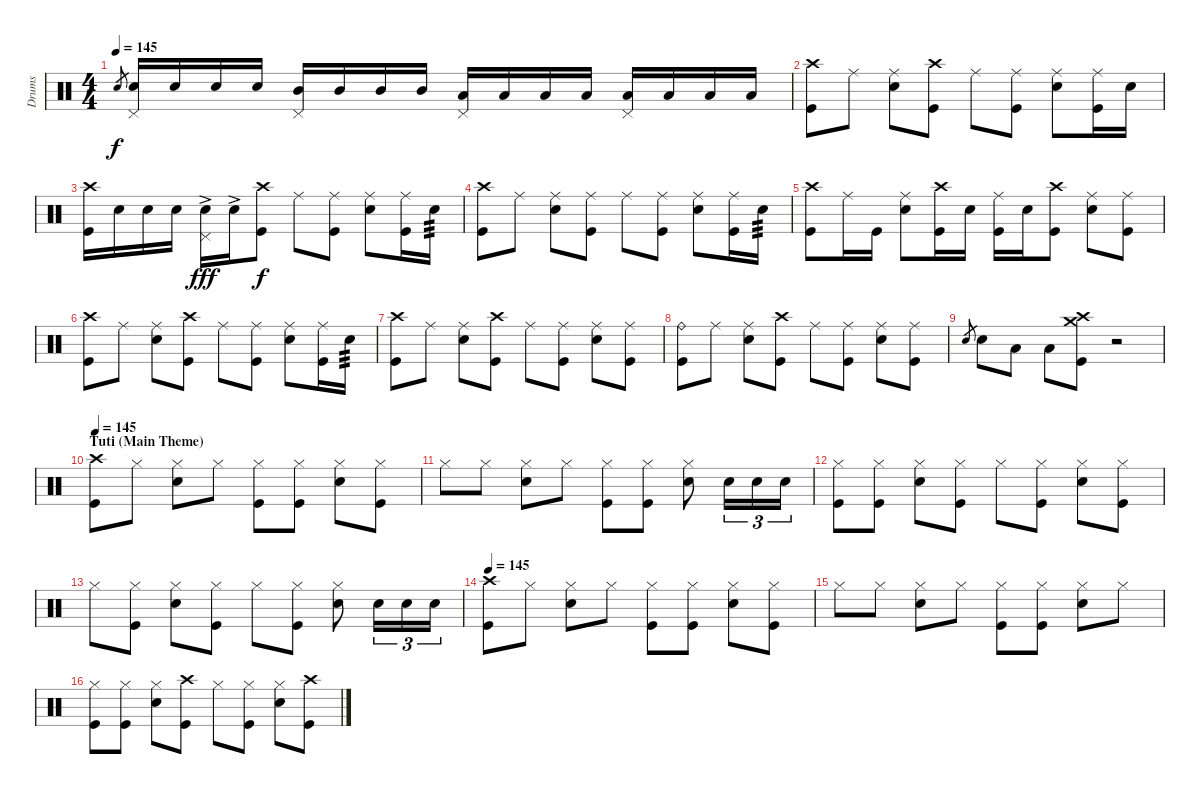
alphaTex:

\track ("Drums" "Drums") {instrument percussion}
\staff {score}
\articulation defaults
\ts (4 4)
\tempo 145
\clef neutral
\ks c "Electric Snare (hit)".8{gr dy f}
("Electric Snare (hit)" "Pedal Hi-Hat (hit)").16 "Electric Snare (hit)".16 "Electric Snare (hit)".16 "Electric Snare (hit)".16 ("Mid Tom (hit)" "Pedal Hi-Hat (hit)").16 "Mid Tom (hit)".16 "Mid Tom (hit)".16 "Mid Tom (hit)".16 ("Low Tom (hit)" "Pedal Hi-Hat (hit)").16 "Low Tom (hit)".16 "Low Tom (hit)".16 "Low Tom (hit)".16 ("Low Floor Tom (hit)" "Pedal Hi-Hat (hit)").16 "Low Floor Tom (hit)".16 "Low Floor Tom (hit)".16 "Low Floor Tom (hit)".16 |
("Crash high (hit)" "Kick (hit)").8 "Ride (middle)".8 ("Ride (middle)" "Electric Snare (hit)").8 ("Crash high (hit)" "Kick (hit)").8 "Ride (middle)".8 ("Ride (middle)" "Kick (hit)").8 ("Ride (middle)" "Electric Snare (hit)").8 ("Ride (middle)" "Kick (hit)").16 "Electric Snare (hit)".16 |
("Crash high (hit)" "Kick (hit)").16 "Electric Snare (hit)".16 "Electric Snare (hit)".16 "Electric Snare (hit)".16 ("Electric Snare (hit)"{ac} "Pedal Hi-Hat (hit)").16{dy fff} "Electric Snare (hit)"{ac}.16 ("Crash high (hit)" "Kick (hit)").8{dy f} "Ride (middle)".8 ("Ride (middle)" "Kick (hit)").8 ("Ride (middle)" "Electric Snare (hit)").8 ("Ride (middle)" "Kick (hit)").16 "Electric Snare (hit)".16{tp 3} |
("Crash high (hit)" "Kick (hit)").8 "Ride (middle)".8 ("Ride (middle)" "Electric Snare (hit)").8 ("Ride (middle)" "Kick (hit)").8 "Ride (middle)".8 ("Ride (middle)" "Kick (hit)").8 ("Ride (middle)" "Electric Snare (hit)").8 ("Ride (middle)" "Kick (hit)").16 "Electric Snare (hit)".16{tp 3} |
("Crash high (hit)" "Kick (hit)").8 "Ride (middle)".16 "Kick (hit)".16 ("Ride (middle)" "Electric Snare (hit)").8 ("Crash high (hit)" "Kick (hit)").16 "Electric Snare (hit)".16 ("Ride (middle)" "Kick (hit)").16 "Electric Snare (hit)".16 ("Crash high (hit)" "Kick (hit)").8 ("Ride (middle)" "Electric Snare (hit)").8 ("Ride (middle)" "Kick (hit)").8 |
("Crash high (hit)" "Kick (hit)").8 "Ride (middle)".8 ("Ride (middle)" "Electric Snare (hit)").8 ("Crash high (hit)" "Kick (hit)").8 "Ride (middle)".8 ("Ride (middle)" "Kick (hit)").8 ("Ride (middle)" "Electric Snare (hit)").8 ("Ride (middle)" "Kick (hit)").16 "Electric Snare (hit)".16{tp 3} |
("Crash high (hit)" "Kick (hit)").8 "Ride (middle)".8 ("Ride (middle)" "Electric Snare (hit)").8 ("Crash high (hit)" "Kick (hit)").8 "Ride (middle)".8 ("Ride (middle)" "Kick (hit)").8 ("Ride (middle)" "Electric Snare (hit)").8 ("Ride (middle)" "Kick (hit)").8 |
("Ride (bell)" "Kick (hit)").8 "Ride (middle)".8 ("Ride (middle)" "Electric Snare (hit)").8 ("Crash high (hit)" "Kick (hit)").8 "Ride (middle)".8 ("Ride (middle)" "Kick (hit)").8 ("Ride (middle)" "Electric Snare (hit)").8 ("Ride (middle)" "Kick (hit)").8 |
"Electric Snare (hit)".8{gr} "Electric Snare (hit)".8 "Low Tom (hit)".8 "Low Floor Tom (hit)".8 ("Crash high (hit)" "Crash medium (hit)" "Kick (hit)").8 r.2 |
\section ("" "Tuti (Main Theme)")
\tempo 145
("Crash high (hit)" "Kick (hit)").8 "Hi-Hat (closed)".8 ("Hi-Hat (closed)" "Electric Snare (hit)").8 "Hi-Hat (closed)".8 ("Hi-Hat (closed)" "Kick (hit)").8 ("Hi-Hat (closed)" "Kick (hit)").8 ("Hi-Hat (closed)" "Electric Snare (hit)").8 ("Hi-Hat (closed)" "Kick (hit)").8 |
"Hi-Hat (closed)".8 "Hi-Hat (closed)".8 ("Hi-Hat (closed)" "Electric Snare (hit)").8 "Hi-Hat (closed)".8 ("Hi-Hat (closed)" "Kick (hit)").8 ("Hi-Hat (closed)" "Kick (hit)").8 ("Hi-Hat (closed)" "Electric Snare (hit)").8 "Electric Snare (hit)".16{tu (3 2)} "Electric Snare (hit)".16{tu (3 2)} "Electric Snare (hit)".16{tu (3 2)} |
("Hi-Hat (closed)" "Kick (hit)").8 ("Hi-Hat (closed)" "Kick (hit)").8 ("Hi-Hat (closed)" "Electric Snare (hit)").8 ("Hi-Hat (closed)" "Kick (hit)").8 "Hi-Hat (closed)".8 ("Hi-Hat (closed)" "Kick (hit)").8 ("Hi-Hat (closed)" "Electric Snare (hit)").8 ("Hi-Hat (closed)" "Kick (hit)").8 |
"Hi-Hat (closed)".8 ("Hi-Hat (closed)" "Kick (hit)").8 ("Hi-Hat (closed)" "Electric Snare (hit)").8 ("Hi-Hat (closed)" "Kick (hit)").8 "Hi-Hat (closed)".8 ("Hi-Hat (closed)" "Kick (hit)").8 ("Hi-Hat (closed)" "Electric Snare (hit)").8 "Electric Snare (hit)".16{tu (3 2)} "Electric Snare (hit)".16{tu (3 2)} "Electric Snare (hit)".16{tu (3 2)} |
\tempo 145
("Crash high (hit)" "Kick (hit)").8 "Hi-Hat (closed)".8 ("Hi-Hat (closed)" "Electric Snare (hit)").8 "Hi-Hat (closed)".8 ("Hi-Hat (closed)" "Kick (hit)").8 ("Hi-Hat (closed)" "Kick (hit)").8 ("Hi-Hat (closed)" "Electric Snare (hit)").8 ("Hi-Hat (closed)" "Kick (hit)").8 |
"Hi-Hat (closed)".8 "Hi-Hat (closed)".8 ("Hi-Hat (closed)" "Electric Snare (hit)").8 "Hi-Hat (closed)".8 ("Hi-Hat (closed)" "Kick (hit)").8 ("Hi-Hat (closed)" "Kick (hit)").8 ("Hi-Hat (closed)" "Electric Snare (hit)").8 "Hi-Hat (closed)".8 |
("Hi-Hat (closed)" "Kick (hit)").8 ("Hi-Hat (closed)" "Kick (hit)").8 ("Hi-Hat (closed)" "Electric Snare (hit)").8 ("Crash high (hit)" "Kick (hit)").8 "Hi-Hat (closed)".8 ("Hi-Hat (closed)" "Kick (hit)").8 ("Hi-Hat (closed)" "Electric Snare (hit)").8 ("Crash high (hit)" "Kick (hit)").8
